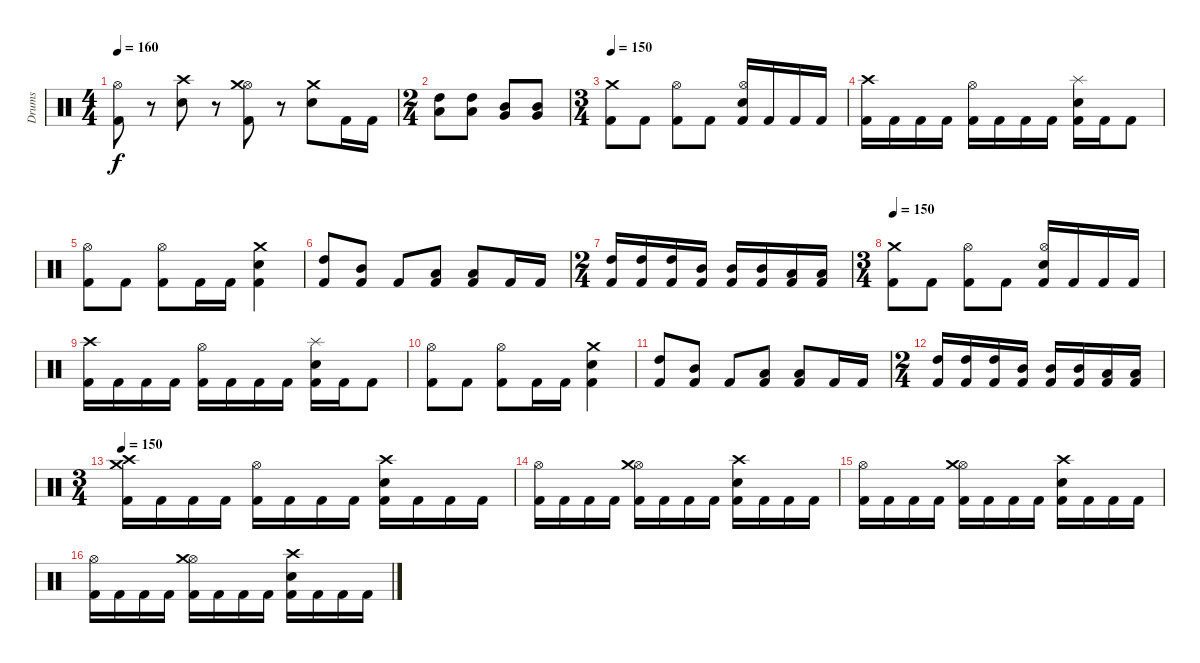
\track ("Drums" "Drums") {instrument percussion}
\staff {score}
\articulation defaults
\ts (4 4)
\tempo 160
\clef neutral
\ks c
("Kick (hit) 2" "Hi-Hat (open)").8{dy f} r.8 ("Electric Snare (hit)" "Crash high (hit)").8 r.8 ("Kick (hit) 2" "Hi-Hat (open)" "Crash medium (hit)").8 r.8 ("Electric Snare (hit)" "Crash medium (hit)").8 "Kick (hit) 2".16 "Kick (hit) 2".16 |
\ts (2 4)
("High Tom (hit)" "Low Tom (hit)").8 ("High Tom (hit)" "Low Tom (hit)").8 ("Mid Tom (hit)" "Very Low Tom (hit)").8 ("Mid Tom (hit)" "Very Low Tom (hit)").8 |
\ts (3 4)
\tempo 150
("Kick (hit) 2" "Crash medium (hit)").8 "Kick (hit) 2".8 ("Kick (hit) 2" "Hi-Hat (open)").8 "Kick (hit) 2".8 ("Kick (hit) 2" "Electric Snare (hit)" "Hi-Hat (open)").16 "Kick (hit) 2".16 "Kick (hit) 2".16 "Kick (hit) 2".16 |
("Kick (hit) 2" "Crash high (hit)").16 "Kick (hit) 2".16 "Kick (hit) 2".16 "Kick (hit) 2".16 ("Kick (hit) 2" "Hi-Hat (open)").16 "Kick (hit) 2".16 "Kick (hit) 2".16 "Kick (hit) 2".16 ("Kick (hit) 2" "Electric Snare (hit)" "Splash (hit)").16 "Kick (hit) 2".16 "Kick (hit) 2".8 |
("Kick (hit) 2" "Hi-Hat (open)").8 "Kick (hit) 2".8 ("Kick (hit) 2" "Hi-Hat (open)").8 "Kick (hit) 2".16 "Kick (hit) 2".16 ("Kick (hit) 2" "Electric Snare (hit)" "Crash medium (hit)").4 |
("Kick (hit) 2" "High Tom (hit)").8 ("Kick (hit) 2" "Mid Tom (hit)").8 "Kick (hit) 2".8 ("Kick (hit) 2" "Low Tom (hit)").8 ("Kick (hit) 2" "Low Tom (hit)").8 "Kick (hit) 2".16 "Kick (hit) 2".16 |
\ts (2 4)
("Kick (hit) 2" "High Tom (hit)").16 ("Kick (hit) 2" "High Tom (hit)").16 ("Kick (hit) 2" "High Tom (hit)").16 ("Kick (hit) 2" "Mid Tom (hit)").16 ("Kick (hit) 2" "Mid Tom (hit)").16 ("Kick (hit) 2" "Mid Tom (hit)").16 ("Kick (hit) 2" "Low Tom (hit)").16 ("Kick (hit) 2" "Low Tom (hit)").16 |
\ts (3 4)
\tempo 150
("Kick (hit) 2" "Crash medium (hit)").8 "Kick (hit) 2".8 ("Kick (hit) 2" "Hi-Hat (open)").8 "Kick (hit) 2".8 ("Kick (hit) 2" "Electric Snare (hit)" "Hi-Hat (open)").16 "Kick (hit) 2".16 "Kick (hit) 2".16 "Kick (hit) 2".16 |
("Kick (hit) 2" "Crash high (hit)").16 "Kick (hit) 2".16 "Kick (hit) 2".16 "Kick (hit) 2".16 ("Kick (hit) 2" "Hi-Hat (open)").16 "Kick (hit) 2".16 "Kick (hit) 2".16 "Kick (hit) 2".16 ("Kick (hit) 2" "Electric Snare (hit)" "Splash (hit)").16 "Kick (hit) 2".16 "Kick (hit) 2".8 |
("Kick (hit) 2" "Hi-Hat (open)").8 "Kick (hit) 2".8 ("Kick (hit) 2" "Hi-Hat (open)").8 "Kick (hit) 2".16 "Kick (hit) 2".16 ("Kick (hit) 2" "Electric Snare (hit)" "Crash medium (hit)").4 |
("Kick (hit) 2" "High Tom (hit)").8 ("Kick (hit) 2" "Mid Tom (hit)").8 "Kick (hit) 2".8 ("Kick (hit) 2" "Low Tom (hit)").8 ("Kick (hit) 2" "Low Tom (hit)").8 "Kick (hit) 2".16 "Kick (hit) 2".16 |
\ts (2 4)
("Kick (hit) 2" "High Tom (hit)").16 ("Kick (hit) 2" "High Tom (hit)").16 ("Kick (hit) 2" "High Tom (hit)").16 ("Kick (hit) 2" "Mid Tom (hit)").16 ("Kick (hit) 2" "Mid Tom (hit)").16 ("Kick (hit) 2" "Mid Tom (hit)").16 ("Kick (hit) 2" "Low Tom (hit)").16 ("Kick (hit) 2" "Low Tom (hit)").16 |
\ts (3 4)
\tempo 150
("Kick (hit) 2" "Crash high (hit)" "Crash medium (hit)").16 "Kick (hit) 2".16 "Kick (hit) 2".16 "Kick (hit) 2".16 ("Kick (hit) 2" "Hi-Hat (open)").16 "Kick (hit) 2".16 "Kick (hit) 2".16 "Kick (hit) 2".16 ("Kick (hit) 2" "Electric Snare (hit)" "Crash high (hit)").16 "Kick (hit) 2".16 "Kick (hit) 2".16 "Kick (hit) 2".16 |
("Kick (hit) 2" "Hi-Hat (open)").16 "Kick (hit) 2".16 "Kick (hit) 2".16 "Kick (hit) 2".16 ("Kick (hit) 2" "Hi-Hat (open)" "Crash medium (hit)").16 "Kick (hit) 2".16 "Kick (hit) 2".16 "Kick (hit) 2".16 ("Kick (hit) 2" "Electric Snare (hit)" "Crash high (hit)").16 "Kick (hit) 2".16 "Kick (hit) 2".16 "Kick (hit) 2".16 |
("Kick (hit) 2" "Hi-Hat (open)").16 "Kick (hit) 2".16 "Kick (hit) 2".16 "Kick (hit) 2".16 ("Kick (hit) 2" "Hi-Hat (open)" "Crash medium (hit)").16 "Kick (hit) 2".16 "Kick (hit) 2".16 "Kick (hit) 2".16 ("Kick (hit) 2" "Electric Snare (hit)" "Crash high (hit)").16 "Kick (hit) 2".16 "Kick (hit) 2".16 "Kick (hit) 2".16 |
("Kick (hit) 2" "Hi-Hat (open)").16 "Kick (hit) 2".16 "Kick (hit) 2".16 "Kick (hit) 2".16 ("Kick (hit) 2" "Hi-Hat (open)" "Crash medium (hit)").16 "Kick (hit) 2".16 "Kick (hit) 2".16 "Kick (hit) 2".16 ("Kick (hit) 2" "Electric Snare (hit)" "Crash high (hit)").16 "Kick (hit) 2".16 "Kick (hit) 2".16 "Kick (hit) 2".16
